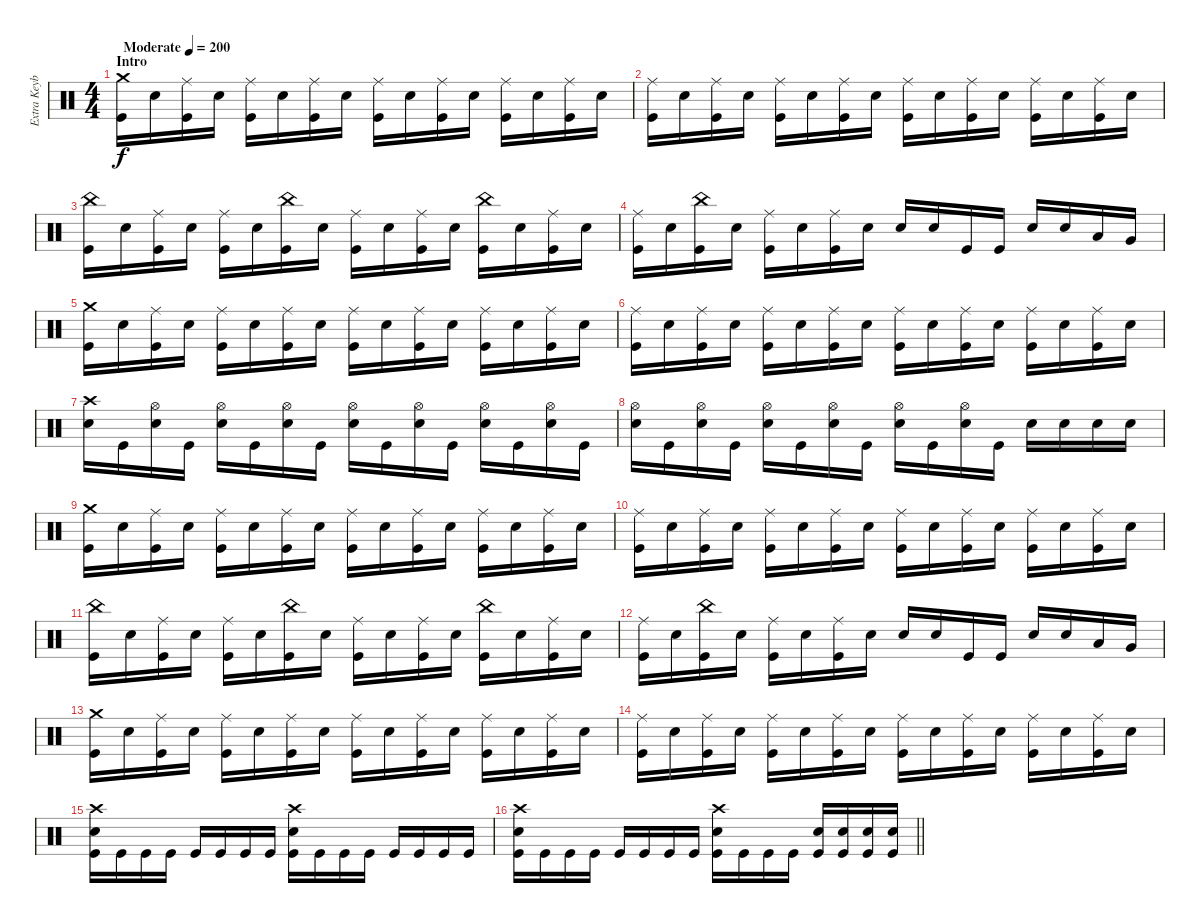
\track ("Extra Keyboard" "Extra Keyb") {instrument percussion}
\staff {score}
\articulation defaults
\ts (4 4)
\section ("" "Intro")
\tempo (200 "Moderate")
\clef neutral
\ks c
("Crash medium (hit)" "Kick (hit)").16{dy f} "Electric Snare (hit)".16 ("Ride (middle)" "Kick (hit)").16 "Electric Snare (hit)".16 ("Ride (middle)" "Kick (hit)").16 "Electric Snare (hit)".16 ("Ride (middle)" "Kick (hit)").16 "Electric Snare (hit)".16 ("Ride (middle)" "Kick (hit)").16 "Electric Snare (hit)".16 ("Ride (middle)" "Kick (hit)").16 "Electric Snare (hit)".16 ("Ride (middle)" "Kick (hit)").16 "Electric Snare (hit)".16 ("Ride (middle)" "Kick (hit)").16 "Electric Snare (hit)".16 |
("Ride (middle)" "Kick (hit)").16 "Electric Snare (hit)".16 ("Ride (middle)" "Kick (hit)").16 "Electric Snare (hit)".16 ("Ride (middle)" "Kick (hit)").16 "Electric Snare (hit)".16 ("Ride (middle)" "Kick (hit)").16 "Electric Snare (hit)".16 ("Ride (middle)" "Kick (hit)").16 "Electric Snare (hit)".16 ("Ride (middle)" "Kick (hit)").16 "Electric Snare (hit)".16 ("Ride (middle)" "Kick (hit)").16 "Electric Snare (hit)".16 ("Ride (middle)" "Kick (hit)").16 "Electric Snare (hit)".16 |
("China (hit)" "Kick (hit)").16 "Electric Snare (hit)".16 ("Ride (middle)" "Kick (hit)").16 "Electric Snare (hit)".16 ("Ride (middle)" "Kick (hit)").16 "Electric Snare (hit)".16 ("China (hit)" "Kick (hit)").16 "Electric Snare (hit)".16 ("Ride (middle)" "Kick (hit)").16 "Electric Snare (hit)".16 ("Ride (middle)" "Kick (hit)").16 "Electric Snare (hit)".16 ("China (hit)" "Kick (hit)").16 "Electric Snare (hit)".16 ("Ride (middle)" "Kick (hit)").16 "Electric Snare (hit)".16 |
("Ride (middle)" "Kick (hit)").16 "Electric Snare (hit)".16 ("China (hit)" "Kick (hit)").16 "Electric Snare (hit)".16 ("Ride (middle)" "Kick (hit)").16 "Electric Snare (hit)".16 ("Ride (middle)" "Kick (hit)").16 "Electric Snare (hit)".16 "Electric Snare (hit)".16 "Electric Snare (hit)".16 "Kick (hit)".16 "Kick (hit)".16 "Electric Snare (hit)".16 "Electric Snare (hit)".16 "Low Tom (hit)".16 "Very Low Tom (hit)".16 |
("Crash medium (hit)" "Kick (hit)").16 "Electric Snare (hit)".16 ("Ride (middle)" "Kick (hit)").16 "Electric Snare (hit)".16 ("Ride (middle)" "Kick (hit)").16 "Electric Snare (hit)".16 ("Ride (middle)" "Kick (hit)").16 "Electric Snare (hit)".16 ("Ride (middle)" "Kick (hit)").16 "Electric Snare (hit)".16 ("Ride (middle)" "Kick (hit)").16 "Electric Snare (hit)".16 ("Ride (middle)" "Kick (hit)").16 "Electric Snare (hit)".16 ("Ride (middle)" "Kick (hit)").16 "Electric Snare (hit)".16 |
("Ride (middle)" "Kick (hit)").16 "Electric Snare (hit)".16 ("Ride (middle)" "Kick (hit)").16 "Electric Snare (hit)".16 ("Ride (middle)" "Kick (hit)").16 "Electric Snare (hit)".16 ("Ride (middle)" "Kick (hit)").16 "Electric Snare (hit)".16 ("Ride (middle)" "Kick (hit)").16 "Electric Snare (hit)".16 ("Ride (middle)" "Kick (hit)").16 "Electric Snare (hit)".16 ("Ride (middle)" "Kick (hit)").16 "Electric Snare (hit)".16 ("Ride (middle)" "Kick (hit)").16 "Electric Snare (hit)".16 |
("Crash high (hit)" "Electric Snare (hit)").16 "Kick (hit)".16 ("Hi-Hat (open)" "Electric Snare (hit)").16 "Kick (hit)".16 ("Hi-Hat (open)" "Electric Snare (hit)").16 "Kick (hit)".16 ("Hi-Hat (open)" "Electric Snare (hit)").16 "Kick (hit)".16 ("Hi-Hat (open)" "Electric Snare (hit)").16 "Kick (hit)".16 ("Hi-Hat (open)" "Electric Snare (hit)").16 "Kick (hit)".16 ("Hi-Hat (open)" "Electric Snare (hit)").16 "Kick (hit)".16 ("Hi-Hat (open)" "Electric Snare (hit)").16 "Kick (hit)".16 |
("Hi-Hat (open)" "Electric Snare (hit)").16 "Kick (hit)".16 ("Hi-Hat (open)" "Electric Snare (hit)").16 "Kick (hit)".16 ("Hi-Hat (open)" "Electric Snare (hit)").16 "Kick (hit)".16 ("Hi-Hat (open)" "Electric Snare (hit)").16 "Kick (hit)".16 ("Hi-Hat (open)" "Electric Snare (hit)").16 "Kick (hit)".16 ("Hi-Hat (open)" "Electric Snare (hit)").16 "Kick (hit)".16 "Electric Snare (hit)".16 "Electric Snare (hit)".16 "Electric Snare (hit)".16 "Electric Snare (hit)".16 |
("Crash medium (hit)" "Kick (hit)").16 "Electric Snare (hit)".16 ("Ride (middle)" "Kick (hit)").16 "Electric Snare (hit)".16 ("Ride (middle)" "Kick (hit)").16 "Electric Snare (hit)".16 ("Ride (middle)" "Kick (hit)").16 "Electric Snare (hit)".16 ("Ride (middle)" "Kick (hit)").16 "Electric Snare (hit)".16 ("Ride (middle)" "Kick (hit)").16 "Electric Snare (hit)".16 ("Ride (middle)" "Kick (hit)").16 "Electric Snare (hit)".16 ("Ride (middle)" "Kick (hit)").16 "Electric Snare (hit)".16 |
("Ride (middle)" "Kick (hit)").16 "Electric Snare (hit)".16 ("Ride (middle)" "Kick (hit)").16 "Electric Snare (hit)".16 ("Ride (middle)" "Kick (hit)").16 "Electric Snare (hit)".16 ("Ride (middle)" "Kick (hit)").16 "Electric Snare (hit)".16 ("Ride (middle)" "Kick (hit)").16 "Electric Snare (hit)".16 ("Ride (middle)" "Kick (hit)").16 "Electric Snare (hit)".16 ("Ride (middle)" "Kick (hit)").16 "Electric Snare (hit)".16 ("Ride (middle)" "Kick (hit)").16 "Electric Snare (hit)".16 |
("China (hit)" "Kick (hit)").16 "Electric Snare (hit)".16 ("Ride (middle)" "Kick (hit)").16 "Electric Snare (hit)".16 ("Ride (middle)" "Kick (hit)").16 "Electric Snare (hit)".16 ("China (hit)" "Kick (hit)").16 "Electric Snare (hit)".16 ("Ride (middle)" "Kick (hit)").16 "Electric Snare (hit)".16 ("Ride (middle)" "Kick (hit)").16 "Electric Snare (hit)".16 ("China (hit)" "Kick (hit)").16 "Electric Snare (hit)".16 ("Ride (middle)" "Kick (hit)").16 "Electric Snare (hit)".16 |
("Ride (middle)" "Kick (hit)").16 "Electric Snare (hit)".16 ("China (hit)" "Kick (hit)").16 "Electric Snare (hit)".16 ("Ride (middle)" "Kick (hit)").16 "Electric Snare (hit)".16 ("Ride (middle)" "Kick (hit)").16 "Electric Snare (hit)".16 "Electric Snare (hit)".16 "Electric Snare (hit)".16 "Kick (hit)".16 "Kick (hit)".16 "Electric Snare (hit)".16 "Electric Snare (hit)".16 "Low Tom (hit)".16 "Very Low Tom (hit)".16 |
("Crash medium (hit)" "Kick (hit)").16 "Electric Snare (hit)".16 ("Ride (middle)" "Kick (hit)").16 "Electric Snare (hit)".16 ("Ride (middle)" "Kick (hit)").16 "Electric Snare (hit)".16 ("Ride (middle)" "Kick (hit)").16 "Electric Snare (hit)".16 ("Ride (middle)" "Kick (hit)").16 "Electric Snare (hit)".16 ("Ride (middle)" "Kick (hit)").16 "Electric Snare (hit)".16 ("Ride (middle)" "Kick (hit)").16 "Electric Snare (hit)".16 ("Ride (middle)" "Kick (hit)").16 "Electric Snare (hit)".16 |
("Ride (middle)" "Kick (hit)").16 "Electric Snare (hit)".16 ("Ride (middle)" "Kick (hit)").16 "Electric Snare (hit)".16 ("Ride (middle)" "Kick (hit)").16 "Electric Snare (hit)".16 ("Ride (middle)" "Kick (hit)").16 "Electric Snare (hit)".16 ("Ride (middle)" "Kick (hit)").16 "Electric Snare (hit)".16 ("Ride (middle)" "Kick (hit)").16 "Electric Snare (hit)".16 ("Ride (middle)" "Kick (hit)").16 "Electric Snare (hit)".16 ("Ride (middle)" "Kick (hit)").16 "Electric Snare (hit)".16 |
("Crash high (hit)" "Electric Snare (hit)" "Kick (hit)").16 "Kick (hit)".16 "Kick (hit)".16 "Kick (hit)".16 "Kick (hit)".16 "Kick (hit)".16 "Kick (hit)".16 "Kick (hit)".16 ("Crash high (hit)" "Electric Snare (hit)" "Kick (hit)").16 "Kick (hit)".16 "Kick (hit)".16 "Kick (hit)".16 "Kick (hit)".16 "Kick (hit)".16 "Kick (hit)".16 "Kick (hit)".16 |
\barLineRight lightlight
("Crash high (hit)" "Electric Snare (hit)" "Kick (hit)").16 "Kick (hit)".16 "Kick (hit)".16 "Kick (hit)".16 "Kick (hit)".16 "Kick (hit)".16 "Kick (hit)".16 "Kick (hit)".16 ("Crash high (hit)" "Electric Snare (hit)" "Kick (hit)").16 "Kick (hit)".16 "Kick (hit)".16 "Kick (hit)".16 ("Electric Snare (hit)" "Kick (hit)").16 ("Electric Snare (hit)" "Kick (hit)").16 ("Electric Snare (hit)" "Kick (hit)").16 ("Electric Snare (hit)" "Kick (hit)").16
